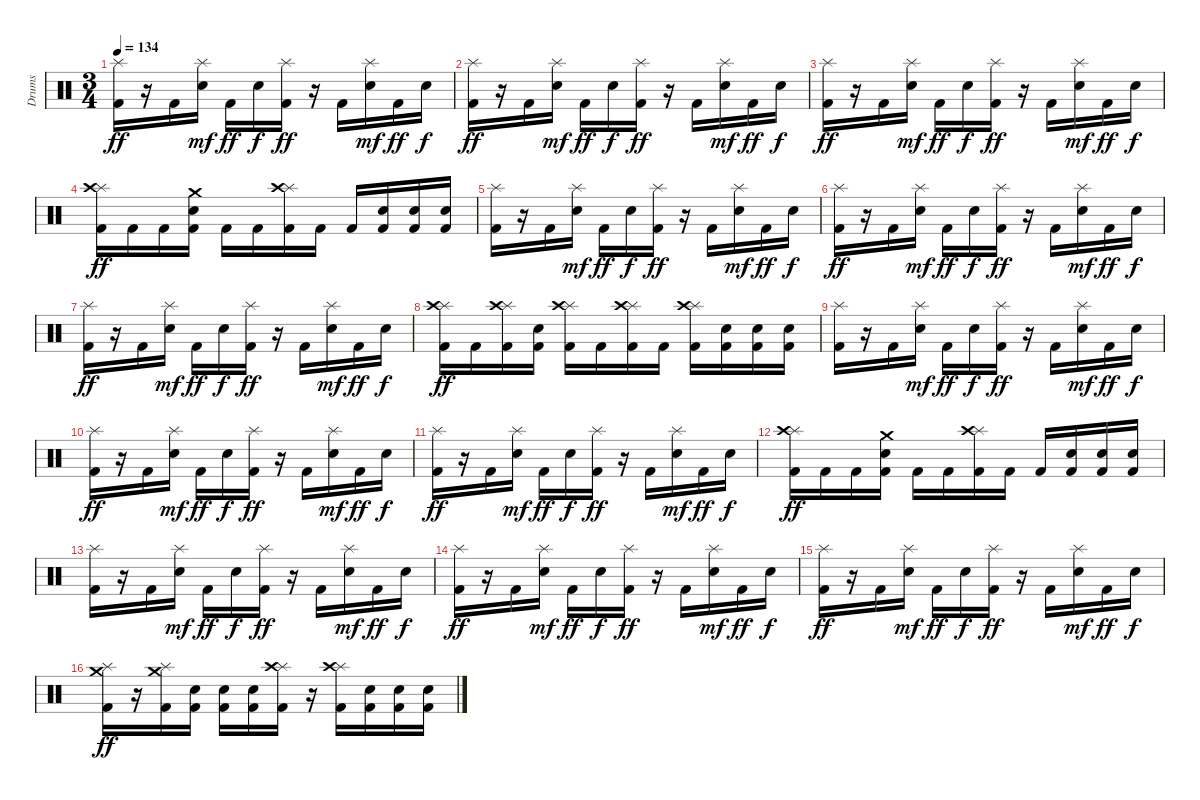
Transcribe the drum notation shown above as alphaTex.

\track ("Drums" "Drums") {instrument percussion}
\staff {score}
\articulation defaults
\ts (3 4)
\tempo 134
\clef neutral
\ks c
("Splash (hit)" "Kick (hit) 2").16{dy ff} r.16 "Kick (hit) 2".16 ("Splash (hit)" "Snare (hit) 2").16{dy mf} "Kick (hit) 2".16{dy ff} "Snare (hit) 2".16{dy f} ("Splash (hit)" "Kick (hit) 2").16{dy ff} r.16 "Kick (hit) 2".16 ("Splash (hit)" "Snare (hit) 2").16{dy mf} "Kick (hit) 2".16{dy ff} "Snare (hit) 2".16{dy f} |
("Splash (hit)" "Kick (hit) 2").16{dy ff} r.16 "Kick (hit) 2".16 ("Splash (hit)" "Snare (hit) 2").16{dy mf} "Kick (hit) 2".16{dy ff} "Snare (hit) 2".16{dy f} ("Splash (hit)" "Kick (hit) 2").16{dy ff} r.16 "Kick (hit) 2".16 ("Splash (hit)" "Snare (hit) 2").16{dy mf} "Kick (hit) 2".16{dy ff} "Snare (hit) 2".16{dy f} |
("Splash (hit)" "Kick (hit) 2").16{dy ff} r.16 "Kick (hit) 2".16 ("Splash (hit)" "Snare (hit) 2").16{dy mf} "Kick (hit) 2".16{dy ff} "Snare (hit) 2".16{dy f} ("Splash (hit)" "Kick (hit) 2").16{dy ff} r.16 "Kick (hit) 2".16 ("Splash (hit)" "Snare (hit) 2").16{dy mf} "Kick (hit) 2".16{dy ff} "Snare (hit) 2".16{dy f} |
("Splash (hit)" "Crash high (hit)" "Kick (hit) 2").16{dy ff} "Kick (hit) 2".16 "Kick (hit) 2".16 ("Crash medium (hit)" "Snare (hit) 2" "Kick (hit) 2").16 "Kick (hit) 2".16 "Kick (hit) 2".16 ("Splash (hit)" "Crash high (hit)" "Kick (hit) 2").16 "Kick (hit) 2".16 "Kick (hit) 2".16 ("Snare (hit) 2" "Kick (hit) 2").16 ("Snare (hit) 2" "Kick (hit) 2").16 ("Snare (hit) 2" "Kick (hit) 2").16 |
("Splash (hit)" "Kick (hit) 2").16 r.16 "Kick (hit) 2".16 ("Splash (hit)" "Snare (hit) 2").16{dy mf} "Kick (hit) 2".16{dy ff} "Snare (hit) 2".16{dy f} ("Splash (hit)" "Kick (hit) 2").16{dy ff} r.16 "Kick (hit) 2".16 ("Splash (hit)" "Snare (hit) 2").16{dy mf} "Kick (hit) 2".16{dy ff} "Snare (hit) 2".16{dy f} |
("Splash (hit)" "Kick (hit) 2").16{dy ff} r.16 "Kick (hit) 2".16 ("Splash (hit)" "Snare (hit) 2").16{dy mf} "Kick (hit) 2".16{dy ff} "Snare (hit) 2".16{dy f} ("Splash (hit)" "Kick (hit) 2").16{dy ff} r.16 "Kick (hit) 2".16 ("Splash (hit)" "Snare (hit) 2").16{dy mf} "Kick (hit) 2".16{dy ff} "Snare (hit) 2".16{dy f} |
("Splash (hit)" "Kick (hit) 2").16{dy ff} r.16 "Kick (hit) 2".16 ("Splash (hit)" "Snare (hit) 2").16{dy mf} "Kick (hit) 2".16{dy ff} "Snare (hit) 2".16{dy f} ("Splash (hit)" "Kick (hit) 2").16{dy ff} r.16 "Kick (hit) 2".16 ("Splash (hit)" "Snare (hit) 2").16{dy mf} "Kick (hit) 2".16{dy ff} "Snare (hit) 2".16{dy f} |
("Splash (hit)" "Crash high (hit)" "Kick (hit) 2").16{dy ff} "Kick (hit) 2".16 ("Splash (hit)" "Crash high (hit)" "Kick (hit) 2").16 ("Snare (hit) 2" "Kick (hit) 2").16 ("Splash (hit)" "Crash high (hit)" "Kick (hit) 2").16 "Kick (hit) 2".16 ("Splash (hit)" "Crash high (hit)" "Kick (hit) 2").16 "Kick (hit) 2".16 ("Splash (hit)" "Crash high (hit)" "Kick (hit) 2").16 ("Snare (hit) 2" "Kick (hit) 2").16 ("Snare (hit) 2" "Kick (hit) 2").16 ("Snare (hit) 2" "Kick (hit) 2").16 |
("Splash (hit)" "Kick (hit) 2").16 r.16 "Kick (hit) 2".16 ("Splash (hit)" "Snare (hit) 2").16{dy mf} "Kick (hit) 2".16{dy ff} "Snare (hit) 2".16{dy f} ("Splash (hit)" "Kick (hit) 2").16{dy ff} r.16 "Kick (hit) 2".16 ("Splash (hit)" "Snare (hit) 2").16{dy mf} "Kick (hit) 2".16{dy ff} "Snare (hit) 2".16{dy f} |
("Splash (hit)" "Kick (hit) 2").16{dy ff} r.16 "Kick (hit) 2".16 ("Splash (hit)" "Snare (hit) 2").16{dy mf} "Kick (hit) 2".16{dy ff} "Snare (hit) 2".16{dy f} ("Splash (hit)" "Kick (hit) 2").16{dy ff} r.16 "Kick (hit) 2".16 ("Splash (hit)" "Snare (hit) 2").16{dy mf} "Kick (hit) 2".16{dy ff} "Snare (hit) 2".16{dy f} |
("Splash (hit)" "Kick (hit) 2").16{dy ff} r.16 "Kick (hit) 2".16 ("Splash (hit)" "Snare (hit) 2").16{dy mf} "Kick (hit) 2".16{dy ff} "Snare (hit) 2".16{dy f} ("Splash (hit)" "Kick (hit) 2").16{dy ff} r.16 "Kick (hit) 2".16 ("Splash (hit)" "Snare (hit) 2").16{dy mf} "Kick (hit) 2".16{dy ff} "Snare (hit) 2".16{dy f} |
("Splash (hit)" "Crash high (hit)" "Kick (hit) 2").16{dy ff} "Kick (hit) 2".16 "Kick (hit) 2".16 ("Crash medium (hit)" "Snare (hit) 2" "Kick (hit) 2").16 "Kick (hit) 2".16 "Kick (hit) 2".16 ("Splash (hit)" "Crash high (hit)" "Kick (hit) 2").16 "Kick (hit) 2".16 "Kick (hit) 2".16 ("Snare (hit) 2" "Kick (hit) 2").16 ("Snare (hit) 2" "Kick (hit) 2").16 ("Snare (hit) 2" "Kick (hit) 2").16 |
("Splash (hit)" "Kick (hit) 2").16 r.16 "Kick (hit) 2".16 ("Splash (hit)" "Snare (hit) 2").16{dy mf} "Kick (hit) 2".16{dy ff} "Snare (hit) 2".16{dy f} ("Splash (hit)" "Kick (hit) 2").16{dy ff} r.16 "Kick (hit) 2".16 ("Splash (hit)" "Snare (hit) 2").16{dy mf} "Kick (hit) 2".16{dy ff} "Snare (hit) 2".16{dy f} |
("Splash (hit)" "Kick (hit) 2").16{dy ff} r.16 "Kick (hit) 2".16 ("Splash (hit)" "Snare (hit) 2").16{dy mf} "Kick (hit) 2".16{dy ff} "Snare (hit) 2".16{dy f} ("Splash (hit)" "Kick (hit) 2").16{dy ff} r.16 "Kick (hit) 2".16 ("Splash (hit)" "Snare (hit) 2").16{dy mf} "Kick (hit) 2".16{dy ff} "Snare (hit) 2".16{dy f} |
("Splash (hit)" "Kick (hit) 2").16{dy ff} r.16 "Kick (hit) 2".16 ("Splash (hit)" "Snare (hit) 2").16{dy mf} "Kick (hit) 2".16{dy ff} "Snare (hit) 2".16{dy f} ("Splash (hit)" "Kick (hit) 2").16{dy ff} r.16 "Kick (hit) 2".16 ("Splash (hit)" "Snare (hit) 2").16{dy mf} "Kick (hit) 2".16{dy ff} "Snare (hit) 2".16{dy f} |
("Splash (hit)" "Crash medium (hit)" "Kick (hit) 2").16{dy ff} r.16 ("Splash (hit)" "Crash medium (hit)" "Kick (hit) 2").16 ("Snare (hit) 2" "Kick (hit) 2").16 ("Snare (hit) 2" "Kick (hit) 2").16 ("Snare (hit) 2" "Kick (hit) 2").16 ("Splash (hit)" "Crash high (hit)" "Kick (hit) 2").16 r.16 ("Splash (hit)" "Crash high (hit)" "Kick (hit) 2").16 ("Snare (hit) 2" "Kick (hit) 2").16 ("Snare (hit) 2" "Kick (hit) 2").16 ("Snare (hit) 2" "Kick (hit) 2").16
